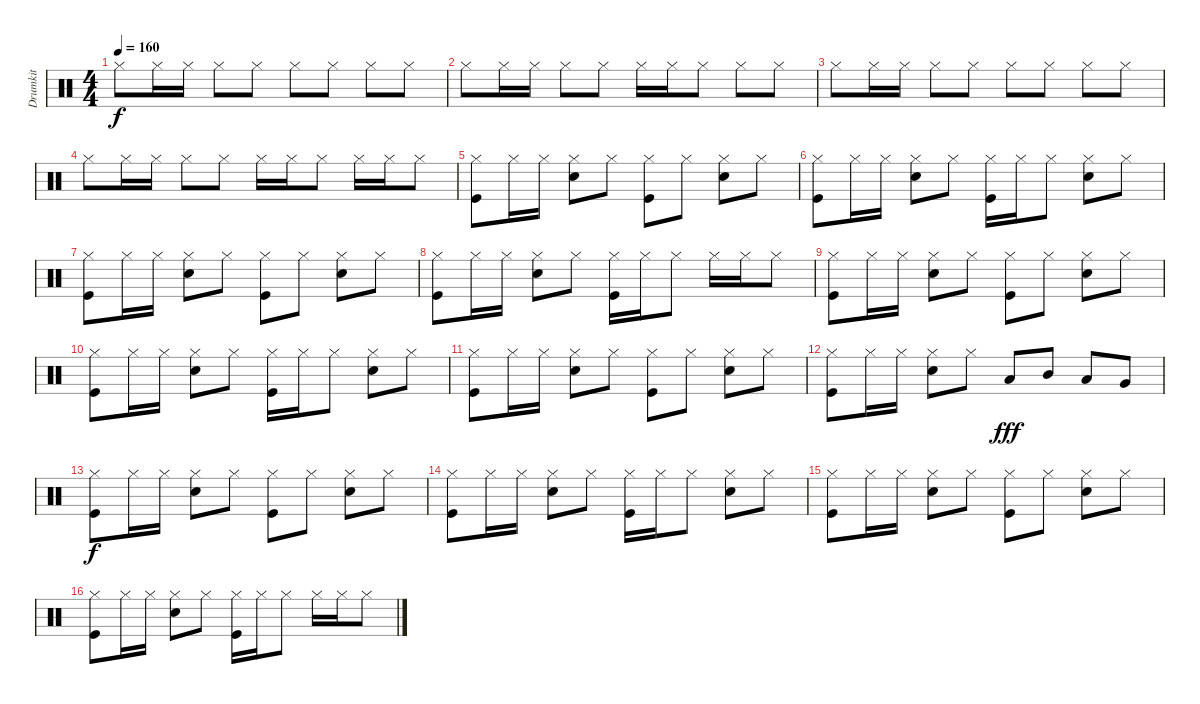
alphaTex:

\track ("Drumkit" "Drumkit") {instrument percussion}
\staff {score}
\articulation defaults
\ts (4 4)
\tempo 160
\clef neutral
\ks c "Hi-Hat (closed)".8{dy f} "Hi-Hat (closed)".16 "Hi-Hat (closed)".16 "Hi-Hat (closed)".8 "Hi-Hat (closed)".8 "Hi-Hat (closed)".8 "Hi-Hat (closed)".8 "Hi-Hat (closed)".8 "Hi-Hat (closed)".8
|
"Hi-Hat (closed)".8 "Hi-Hat (closed)".16 "Hi-Hat (closed)".16 "Hi-Hat (closed)".8 "Hi-Hat (closed)".8 "Hi-Hat (closed)".16 "Hi-Hat (closed)".16 "Hi-Hat (closed)".8 "Hi-Hat (closed)".8 "Hi-Hat (closed)".8 |
"Hi-Hat (closed)".8 "Hi-Hat (closed)".16 "Hi-Hat (closed)".16 "Hi-Hat (closed)".8 "Hi-Hat (closed)".8 "Hi-Hat (closed)".8 "Hi-Hat (closed)".8 "Hi-Hat (closed)".8 "Hi-Hat (closed)".8 |
"Hi-Hat (closed)".8 "Hi-Hat (closed)".16 "Hi-Hat (closed)".16 "Hi-Hat (closed)".8 "Hi-Hat (closed)".8 "Hi-Hat (closed)".16 "Hi-Hat (closed)".16 "Hi-Hat (closed)".8 "Hi-Hat (closed)".16 "Hi-Hat (closed)".16 "Hi-Hat (closed)".8 |
("Hi-Hat (closed)" "Kick (hit)").8 "Hi-Hat (closed)".16 "Hi-Hat (closed)".16 ("Hi-Hat (closed)" "Snare (hit) 2").8 "Hi-Hat (closed)".8 ("Hi-Hat (closed)" "Kick (hit)").8 "Hi-Hat (closed)".8 ("Hi-Hat (closed)" "Snare (hit) 2").8 "Hi-Hat (closed)".8 |
("Hi-Hat (closed)" "Kick (hit)").8 "Hi-Hat (closed)".16 "Hi-Hat (closed)".16 ("Hi-Hat (closed)" "Snare (hit) 2").8 "Hi-Hat (closed)".8 ("Hi-Hat (closed)" "Kick (hit)").16 "Hi-Hat (closed)".16 "Hi-Hat (closed)".8 ("Hi-Hat (closed)" "Snare (hit) 2").8 "Hi-Hat (closed)".8 |
("Hi-Hat (closed)" "Kick (hit)").8 "Hi-Hat (closed)".16 "Hi-Hat (closed)".16 ("Hi-Hat (closed)" "Snare (hit) 2").8 "Hi-Hat (closed)".8 ("Hi-Hat (closed)" "Kick (hit)").8 "Hi-Hat (closed)".8 ("Hi-Hat (closed)" "Snare (hit) 2").8 "Hi-Hat (closed)".8 |
("Hi-Hat (closed)" "Kick (hit)").8 "Hi-Hat (closed)".16 "Hi-Hat (closed)".16 ("Hi-Hat (closed)" "Snare (hit) 2").8 "Hi-Hat (closed)".8 ("Hi-Hat (closed)" "Kick (hit)").16 "Hi-Hat (closed)".16 "Hi-Hat (closed)".8 "Hi-Hat (closed)".16 "Hi-Hat (closed)".16 "Hi-Hat (closed)".8 |
("Hi-Hat (closed)" "Kick (hit)").8 "Hi-Hat (closed)".16 "Hi-Hat (closed)".16 ("Hi-Hat (closed)" "Snare (hit) 2").8 "Hi-Hat (closed)".8 ("Hi-Hat (closed)" "Kick (hit)").8 "Hi-Hat (closed)".8 ("Hi-Hat (closed)" "Snare (hit) 2").8 "Hi-Hat (closed)".8 |
("Hi-Hat (closed)" "Kick (hit)").8 "Hi-Hat (closed)".16 "Hi-Hat (closed)".16 ("Hi-Hat (closed)" "Snare (hit) 2").8 "Hi-Hat (closed)".8 ("Hi-Hat (closed)" "Kick (hit)").16 "Hi-Hat (closed)".16 "Hi-Hat (closed)".8 ("Hi-Hat (closed)" "Snare (hit) 2").8 "Hi-Hat (closed)".8 |
("Hi-Hat (closed)" "Kick (hit)").8 "Hi-Hat (closed)".16 "Hi-Hat (closed)".16 ("Hi-Hat (closed)" "Snare (hit) 2").8 "Hi-Hat (closed)".8 ("Hi-Hat (closed)" "Kick (hit)").8 "Hi-Hat (closed)".8 ("Hi-Hat (closed)" "Snare (hit) 2").8 "Hi-Hat (closed)".8 |
("Hi-Hat (closed)" "Kick (hit)").8 "Hi-Hat (closed)".16 "Hi-Hat (closed)".16 ("Hi-Hat (closed)" "Snare (hit) 2").8 "Hi-Hat (closed)".8 "Low Tom (hit)".8{dy fff} "Mid Tom (hit)".8 "Low Tom (hit)".8 "Very Low Tom (hit)".8 |
("Hi-Hat (closed)" "Kick (hit)").8{dy f} "Hi-Hat (closed)".16 "Hi-Hat (closed)".16 ("Hi-Hat (closed)" "Snare (hit) 2").8 "Hi-Hat (closed)".8 ("Hi-Hat (closed)" "Kick (hit)").8 "Hi-Hat (closed)".8 ("Hi-Hat (closed)" "Snare (hit) 2").8 "Hi-Hat (closed)".8 |
("Hi-Hat (closed)" "Kick (hit)").8 "Hi-Hat (closed)".16 "Hi-Hat (closed)".16 ("Hi-Hat (closed)" "Snare (hit) 2").8 "Hi-Hat (closed)".8 ("Hi-Hat (closed)" "Kick (hit)").16 "Hi-Hat (closed)".16 "Hi-Hat (closed)".8 ("Hi-Hat (closed)" "Snare (hit) 2").8 "Hi-Hat (closed)".8 |
("Hi-Hat (closed)" "Kick (hit)").8 "Hi-Hat (closed)".16 "Hi-Hat (closed)".16 ("Hi-Hat (closed)" "Snare (hit) 2").8 "Hi-Hat (closed)".8 ("Hi-Hat (closed)" "Kick (hit)").8 "Hi-Hat (closed)".8 ("Hi-Hat (closed)" "Snare (hit) 2").8 "Hi-Hat (closed)".8 |
("Hi-Hat (closed)" "Kick (hit)").8 "Hi-Hat (closed)".16 "Hi-Hat (closed)".16 ("Hi-Hat (closed)" "Snare (hit) 2").8 "Hi-Hat (closed)".8 ("Hi-Hat (closed)" "Kick (hit)").16 "Hi-Hat (closed)".16 "Hi-Hat (closed)".8 "Hi-Hat (closed)".16 "Hi-Hat (closed)".16 "Hi-Hat (closed)".8
